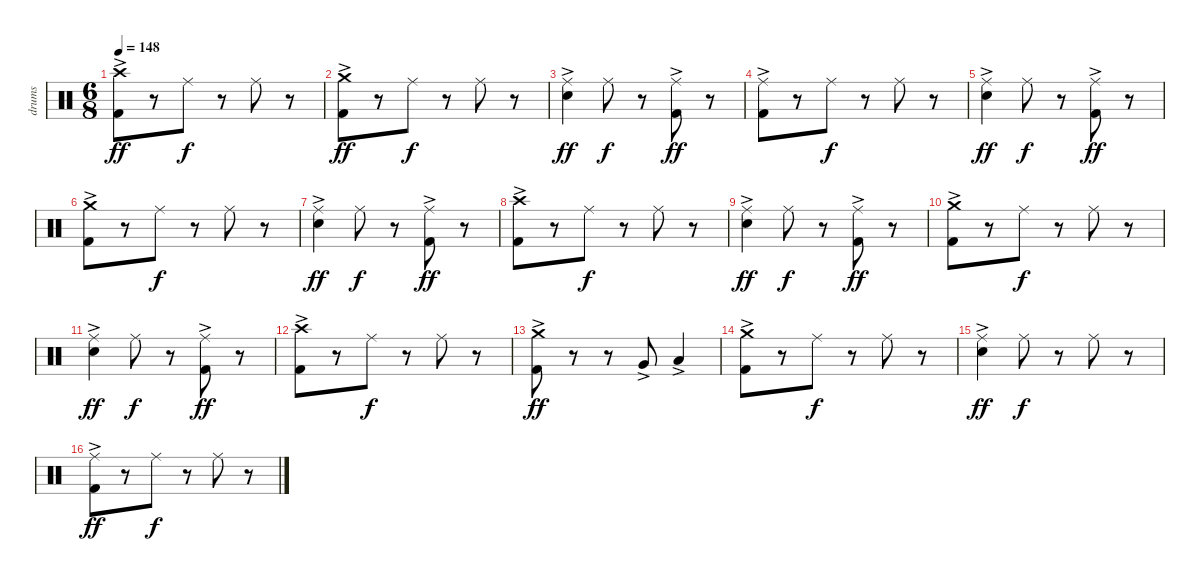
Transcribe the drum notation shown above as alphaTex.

\track ("drums" "drums") {instrument percussion}
\staff {score}
\articulation defaults
\ts (6 8)
\tempo 148
\clef neutral
\ks c
("Crash high (hit)" "Kick (hit) 2"{ac}).8{dy ff} r.8 "Ride (middle)".8{dy f} r.8 "Ride (middle)".8 r.8 |
("Crash medium (hit)" "Kick (hit) 2"{ac}).8{dy ff} r.8 "Ride (middle)".8{dy f} r.8 "Ride (middle)".8 r.8 |
("Ride (middle)" "Electric Snare (hit)"{ac}).4{dy ff} "Ride (middle)".8{dy f} r.8 ("Ride (middle)" "Kick (hit) 2"{ac}).8{dy ff} r.8 |
("Ride (middle)" "Kick (hit) 2"{ac}).8 r.8 "Ride (middle)".8{dy f} r.8 "Ride (middle)".8 r.8 |
("Ride (middle)" "Electric Snare (hit)"{ac}).4{dy ff} "Ride (middle)".8{dy f} r.8 ("Ride (middle)" "Kick (hit) 2"{ac}).8{dy ff} r.8 |
("Crash medium (hit)" "Kick (hit) 2"{ac}).8 r.8 "Ride (middle)".8{dy f} r.8 "Ride (middle)".8 r.8 |
("Ride (middle)" "Electric Snare (hit)"{ac}).4{dy ff} "Ride (middle)".8{dy f} r.8 ("Ride (middle)" "Kick (hit) 2"{ac}).8{dy ff} r.8 |
("Crash high (hit)" "Kick (hit) 2"{ac}).8 r.8 "Ride (middle)".8{dy f} r.8 "Ride (middle)".8 r.8 |
("Ride (middle)" "Electric Snare (hit)"{ac}).4{dy ff} "Ride (middle)".8{dy f} r.8 ("Ride (middle)" "Kick (hit) 2"{ac}).8{dy ff} r.8 |
("Crash medium (hit)" "Kick (hit) 2"{ac}).8 r.8 "Ride (middle)".8{dy f} r.8 "Ride (middle)".8 r.8 |
("Ride (middle)" "Electric Snare (hit)"{ac}).4{dy ff} "Ride (middle)".8{dy f} r.8 ("Ride (middle)" "Kick (hit) 2"{ac}).8{dy ff} r.8 |
("Crash high (hit)" "Kick (hit) 2"{ac}).8 r.8 "Ride (middle)".8{dy f} r.8 "Ride (middle)".8 r.8 |
("Crash medium (hit)" "Kick (hit) 2"{ac}).8{dy ff} r.8 r.8 "Very Low Tom (hit)"{ac}.8 "Low Floor Tom (hit)"{ac}.4 |
("Crash medium (hit)" "Kick (hit) 2"{ac}).8 r.8 "Ride (middle)".8{dy f} r.8 "Ride (middle)".8 r.8 |
("Ride (middle)" "Electric Snare (hit)"{ac}).4{dy ff} "Ride (middle)".8{dy f} r.8 "Ride (middle)".8 r.8 |
("Ride (middle)" "Kick (hit) 2"{ac}).8{dy ff} r.8 "Ride (middle)".8{dy f} r.8 "Ride (middle)".8 r.8
